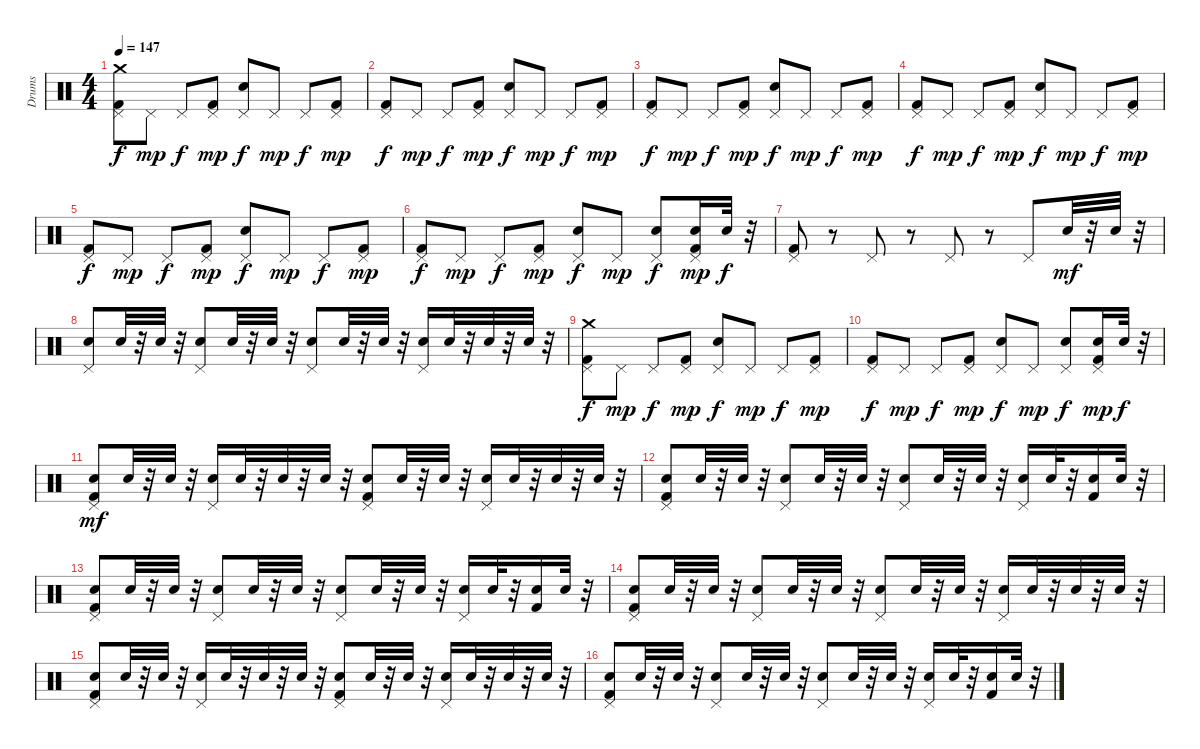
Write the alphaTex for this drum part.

\track ("Drums" "Drums") {instrument percussion}
\staff {score}
\articulation defaults
\ts (4 4)
\tempo 147
\clef neutral
\ks c
("Pedal Hi-Hat (hit)" "Kick (hit) 2" "Crash medium (hit)").8{dy f} "Pedal Hi-Hat (hit)".8{dy mp} "Pedal Hi-Hat (hit)".8{dy f} ("Pedal Hi-Hat (hit)" "Kick (hit) 2").8{dy mp} ("Pedal Hi-Hat (hit)" "Snare (hit) 2").8{dy f} "Pedal Hi-Hat (hit)".8{dy mp} "Pedal Hi-Hat (hit)".8{dy f} ("Pedal Hi-Hat (hit)" "Kick (hit) 2").8{dy mp} |
("Pedal Hi-Hat (hit)" "Kick (hit) 2").8{dy f} "Pedal Hi-Hat (hit)".8{dy mp} "Pedal Hi-Hat (hit)".8{dy f} ("Pedal Hi-Hat (hit)" "Kick (hit) 2").8{dy mp} ("Pedal Hi-Hat (hit)" "Snare (hit) 2").8{dy f} "Pedal Hi-Hat (hit)".8{dy mp} "Pedal Hi-Hat (hit)".8{dy f} ("Pedal Hi-Hat (hit)" "Kick (hit) 2").8{dy mp} |
("Pedal Hi-Hat (hit)" "Kick (hit) 2").8{dy f} "Pedal Hi-Hat (hit)".8{dy mp} "Pedal Hi-Hat (hit)".8{dy f} ("Pedal Hi-Hat (hit)" "Kick (hit) 2").8{dy mp} ("Pedal Hi-Hat (hit)" "Snare (hit) 2").8{dy f} "Pedal Hi-Hat (hit)".8{dy mp} "Pedal Hi-Hat (hit)".8{dy f} ("Pedal Hi-Hat (hit)" "Kick (hit) 2").8{dy mp} |
("Pedal Hi-Hat (hit)" "Kick (hit) 2").8{dy f} "Pedal Hi-Hat (hit)".8{dy mp} "Pedal Hi-Hat (hit)".8{dy f} ("Pedal Hi-Hat (hit)" "Kick (hit) 2").8{dy mp} ("Pedal Hi-Hat (hit)" "Snare (hit) 2").8{dy f} "Pedal Hi-Hat (hit)".8{dy mp} "Pedal Hi-Hat (hit)".8{dy f} ("Pedal Hi-Hat (hit)" "Kick (hit) 2").8{dy mp} |
("Pedal Hi-Hat (hit)" "Kick (hit) 2").8{dy f} "Pedal Hi-Hat (hit)".8{dy mp} "Pedal Hi-Hat (hit)".8{dy f} ("Pedal Hi-Hat (hit)" "Kick (hit) 2").8{dy mp} ("Pedal Hi-Hat (hit)" "Snare (hit) 2").8{dy f} "Pedal Hi-Hat (hit)".8{dy mp} "Pedal Hi-Hat (hit)".8{dy f} ("Pedal Hi-Hat (hit)" "Kick (hit) 2").8{dy mp} |
("Pedal Hi-Hat (hit)" "Kick (hit) 2").8{dy f} "Pedal Hi-Hat (hit)".8{dy mp} "Pedal Hi-Hat (hit)".8{dy f} ("Pedal Hi-Hat (hit)" "Kick (hit) 2").8{dy mp} ("Pedal Hi-Hat (hit)" "Snare (hit) 2").8{dy f} "Pedal Hi-Hat (hit)".8{dy mp} ("Pedal Hi-Hat (hit)" "Snare (hit) 2").8{dy f} ("Pedal Hi-Hat (hit)" "Snare (hit) 2" "Kick (hit) 2").16{dy mp} "Snare (hit) 2".32{dy f} r.32 |
("Pedal Hi-Hat (hit)" "Kick (hit) 2").8 r.8 "Pedal Hi-Hat (hit)".8 r.8 "Pedal Hi-Hat (hit)".8 r.8 "Pedal Hi-Hat (hit)".8 "Snare (hit) 2".32{dy mf} r.32 "Snare (hit) 2".32 r.32 |
("Pedal Hi-Hat (hit)" "Snare (hit) 2").8 "Snare (hit) 2".32 r.32 "Snare (hit) 2".32 r.32 ("Pedal Hi-Hat (hit)" "Snare (hit) 2").8 "Snare (hit) 2".32 r.32 "Snare (hit) 2".32 r.32 ("Pedal Hi-Hat (hit)" "Snare (hit) 2").8 "Snare (hit) 2".32 r.32 "Snare (hit) 2".32 r.32 ("Pedal Hi-Hat (hit)" "Snare (hit) 2").16 "Snare (hit) 2".32 r.32 "Snare (hit) 2".32 r.32 "Snare (hit) 2".32 r.32 |
("Pedal Hi-Hat (hit)" "Kick (hit) 2" "Crash medium (hit)").8{dy f} "Pedal Hi-Hat (hit)".8{dy mp} "Pedal Hi-Hat (hit)".8{dy f} ("Pedal Hi-Hat (hit)" "Kick (hit) 2").8{dy mp} ("Pedal Hi-Hat (hit)" "Snare (hit) 2").8{dy f} "Pedal Hi-Hat (hit)".8{dy mp} "Pedal Hi-Hat (hit)".8{dy f} ("Pedal Hi-Hat (hit)" "Kick (hit) 2").8{dy mp} |
("Pedal Hi-Hat (hit)" "Kick (hit) 2").8{dy f} "Pedal Hi-Hat (hit)".8{dy mp} "Pedal Hi-Hat (hit)".8{dy f} ("Pedal Hi-Hat (hit)" "Kick (hit) 2").8{dy mp} ("Pedal Hi-Hat (hit)" "Snare (hit) 2").8{dy f} "Pedal Hi-Hat (hit)".8{dy mp} ("Pedal Hi-Hat (hit)" "Snare (hit) 2").8{dy f} ("Pedal Hi-Hat (hit)" "Snare (hit) 2" "Kick (hit) 2").16{dy mp} "Snare (hit) 2".32{dy f} r.32 |
("Pedal Hi-Hat (hit)" "Kick (hit) 2" "Snare (hit) 2").8{dy mf} "Snare (hit) 2".32 r.32 "Snare (hit) 2".32 r.32 ("Pedal Hi-Hat (hit)" "Snare (hit) 2").16 "Snare (hit) 2".32 r.32 "Snare (hit) 2".32 r.32 "Snare (hit) 2".32 r.32 ("Pedal Hi-Hat (hit)" "Kick (hit) 2" "Snare (hit) 2").8 "Snare (hit) 2".32 r.32 "Snare (hit) 2".32 r.32 ("Pedal Hi-Hat (hit)" "Snare (hit) 2").16 "Snare (hit) 2".32 r.32 "Snare (hit) 2".32 r.32 "Snare (hit) 2".32 r.32 |
("Pedal Hi-Hat (hit)" "Kick (hit) 2" "Snare (hit) 2").8 "Snare (hit) 2".32 r.32 "Snare (hit) 2".32 r.32 ("Pedal Hi-Hat (hit)" "Snare (hit) 2").8 "Snare (hit) 2".32 r.32 "Snare (hit) 2".32 r.32 ("Pedal Hi-Hat (hit)" "Snare (hit) 2").8 "Snare (hit) 2".32 r.32 "Snare (hit) 2".32 r.32 ("Pedal Hi-Hat (hit)" "Snare (hit) 2").16 "Snare (hit) 2".32 r.32 ("Kick (hit) 2" "Snare (hit) 2").16 "Snare (hit) 2".32 r.32 |
("Pedal Hi-Hat (hit)" "Kick (hit) 2" "Snare (hit) 2").8 "Snare (hit) 2".32 r.32 "Snare (hit) 2".32 r.32 ("Pedal Hi-Hat (hit)" "Snare (hit) 2").8 "Snare (hit) 2".32 r.32 "Snare (hit) 2".32 r.32 ("Pedal Hi-Hat (hit)" "Snare (hit) 2").8 "Snare (hit) 2".32 r.32 "Snare (hit) 2".32 r.32 ("Pedal Hi-Hat (hit)" "Snare (hit) 2").16 "Snare (hit) 2".32 r.32 ("Kick (hit) 2" "Snare (hit) 2").16 "Snare (hit) 2".32 r.32 |
("Pedal Hi-Hat (hit)" "Kick (hit) 2" "Snare (hit) 2").8 "Snare (hit) 2".32 r.32 "Snare (hit) 2".32 r.32 ("Pedal Hi-Hat (hit)" "Snare (hit) 2").8 "Snare (hit) 2".32 r.32 "Snare (hit) 2".32 r.32 ("Pedal Hi-Hat (hit)" "Snare (hit) 2").8 "Snare (hit) 2".32 r.32 "Snare (hit) 2".32 r.32 ("Pedal Hi-Hat (hit)" "Snare (hit) 2").16 "Snare (hit) 2".32 r.32 "Snare (hit) 2".32 r.32 "Snare (hit) 2".32 r.32 |
("Pedal Hi-Hat (hit)" "Kick (hit) 2" "Snare (hit) 2").8 "Snare (hit) 2".32 r.32 "Snare (hit) 2".32 r.32 ("Pedal Hi-Hat (hit)" "Snare (hit) 2").16 "Snare (hit) 2".32 r.32 "Snare (hit) 2".32 r.32 "Snare (hit) 2".32 r.32 ("Pedal Hi-Hat (hit)" "Kick (hit) 2" "Snare (hit) 2").8 "Snare (hit) 2".32 r.32 "Snare (hit) 2".32 r.32 ("Pedal Hi-Hat (hit)" "Snare (hit) 2").16 "Snare (hit) 2".32 r.32 "Snare (hit) 2".32 r.32 "Snare (hit) 2".32 r.32 |
("Pedal Hi-Hat (hit)" "Kick (hit) 2" "Snare (hit) 2").8 "Snare (hit) 2".32 r.32 "Snare (hit) 2".32 r.32 ("Pedal Hi-Hat (hit)" "Snare (hit) 2").8 "Snare (hit) 2".32 r.32 "Snare (hit) 2".32 r.32 ("Pedal Hi-Hat (hit)" "Snare (hit) 2").8 "Snare (hit) 2".32 r.32 "Snare (hit) 2".32 r.32 ("Pedal Hi-Hat (hit)" "Snare (hit) 2").16 "Snare (hit) 2".32 r.32 ("Kick (hit) 2" "Snare (hit) 2").16 "Snare (hit) 2".32 r.32
